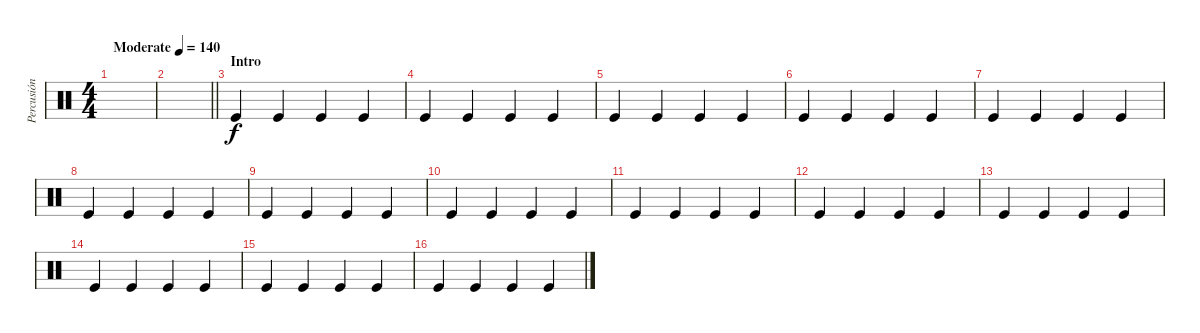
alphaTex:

\track ("Percusión" "Percusión") {instrument percussion}
\staff {score}
\articulation defaults
\ts (4 4)
\tempo (140 "Moderate")
\clef neutral
\ks c
|
\barLineRight lightlight
|
\section ("" "Intro")
"Kick (hit)".4 "Kick (hit)".4 "Kick (hit)".4 "Kick (hit)".4 |
"Kick (hit)".4 "Kick (hit)".4 "Kick (hit)".4 "Kick (hit)".4 |
"Kick (hit)".4 "Kick (hit)".4 "Kick (hit)".4 "Kick (hit)".4 |
"Kick (hit)".4 "Kick (hit)".4 "Kick (hit)".4 "Kick (hit)".4 |
"Kick (hit)".4 "Kick (hit)".4 "Kick (hit)".4 "Kick (hit)".4 |
"Kick (hit)".4 "Kick (hit)".4 "Kick (hit)".4 "Kick (hit)".4 |
"Kick (hit)".4 "Kick (hit)".4 "Kick (hit)".4 "Kick (hit)".4 |
"Kick (hit)".4 "Kick (hit)".4 "Kick (hit)".4 "Kick (hit)".4 |
"Kick (hit)".4 "Kick (hit)".4 "Kick (hit)".4 "Kick (hit)".4 |
"Kick (hit)".4 "Kick (hit)".4 "Kick (hit)".4 "Kick (hit)".4 |
"Kick (hit)".4 "Kick (hit)".4 "Kick (hit)".4 "Kick (hit)".4 |
"Kick (hit)".4 "Kick (hit)".4 "Kick (hit)".4 "Kick (hit)".4 |
"Kick (hit)".4 "Kick (hit)".4 "Kick (hit)".4 "Kick (hit)".4 |
"Kick (hit)".4 "Kick (hit)".4 "Kick (hit)".4 "Kick (hit)".4
